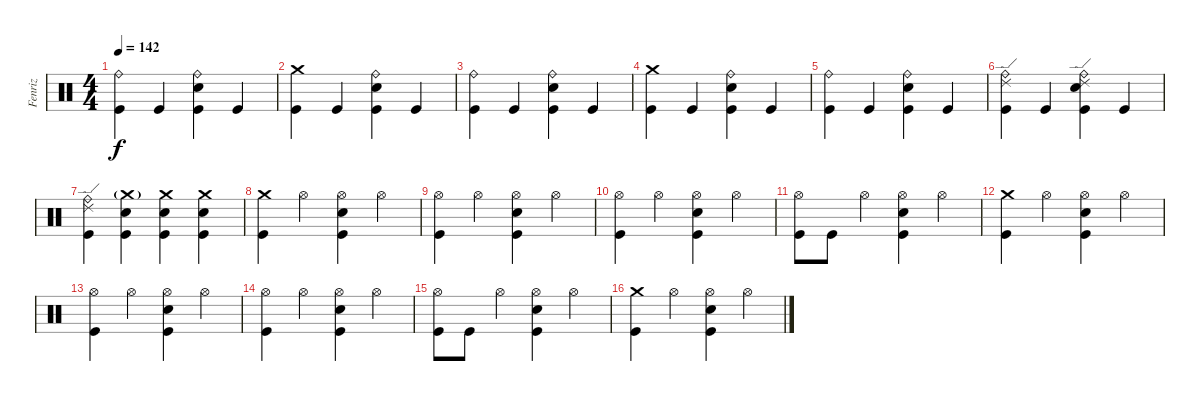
\track ("Fenriz" "Fenriz") {instrument percussion}
\staff {score}
\articulation defaults
\ts (4 4)
\tempo 142
\clef neutral
\ks c
("Ride (bell)" "Kick (hit)").4{dy f} "Kick (hit)".4 ("Electric Snare (hit)" "Ride (bell)" "Kick (hit)").4 "Kick (hit)".4 |
("Crash medium (hit)" "Kick (hit)").4 "Kick (hit)".4 ("Electric Snare (hit)" "Ride (bell)" "Kick (hit)").4 "Kick (hit)".4 |
("Ride (bell)" "Kick (hit)").4 "Kick (hit)".4 ("Electric Snare (hit)" "Ride (bell)" "Kick (hit)").4 "Kick (hit)".4 |
("Crash medium (hit)" "Kick (hit)").4 "Kick (hit)".4 ("Electric Snare (hit)" "Ride (bell)" "Kick (hit)").4 "Kick (hit)".4 |
("Ride (bell)" "Kick (hit)").4 "Kick (hit)".4 ("Electric Snare (hit)" "Ride (bell)" "Kick (hit)").4 "Kick (hit)".4 |
("Ride (edge) 2" "Ride (bell)" "Kick (hit)").4 "Kick (hit)".4 ("Ride (edge) 2" "Electric Snare (hit)" "Ride (bell)" "Kick (hit)").4 "Kick (hit)".4 |
("Ride (edge) 2" "Ride (bell)" "Kick (hit)").4 ("Crash medium (hit)"{g} "Electric Snare (hit)" "Kick (hit)").4 ("Crash medium (hit)" "Electric Snare (hit)" "Kick (hit)").4 ("Crash medium (hit)" "Electric Snare (hit)" "Kick (hit)").4 |
("Crash medium (hit)" "Kick (hit)").4 "Hi-Hat (open)".4 ("Electric Snare (hit)" "Hi-Hat (open)" "Kick (hit)").4 "Hi-Hat (open)".4 |
("Hi-Hat (open)" "Kick (hit)").4 "Hi-Hat (open)".4 ("Electric Snare (hit)" "Hi-Hat (open)" "Kick (hit)").4 "Hi-Hat (open)".4 |
("Hi-Hat (open)" "Kick (hit)").4 "Hi-Hat (open)".4 ("Electric Snare (hit)" "Hi-Hat (open)" "Kick (hit)").4 "Hi-Hat (open)".4 |
("Hi-Hat (open)" "Kick (hit)").8 "Kick (hit)".8 "Hi-Hat (open)".4 ("Electric Snare (hit)" "Hi-Hat (open)" "Kick (hit)").4 "Hi-Hat (open)".4 |
("Crash medium (hit)" "Kick (hit)").4 "Hi-Hat (open)".4 ("Electric Snare (hit)" "Hi-Hat (open)" "Kick (hit)").4 "Hi-Hat (open)".4 |
("Hi-Hat (open)" "Kick (hit)").4 "Hi-Hat (open)".4 ("Electric Snare (hit)" "Hi-Hat (open)" "Kick (hit)").4 "Hi-Hat (open)".4 |
("Hi-Hat (open)" "Kick (hit)").4 "Hi-Hat (open)".4 ("Electric Snare (hit)" "Hi-Hat (open)" "Kick (hit)").4 "Hi-Hat (open)".4 |
("Hi-Hat (open)" "Kick (hit)").8 "Kick (hit)".8 "Hi-Hat (open)".4 ("Electric Snare (hit)" "Hi-Hat (open)" "Kick (hit)").4 "Hi-Hat (open)".4 |
("Crash medium (hit)" "Kick (hit)").4 "Hi-Hat (open)".4 ("Electric Snare (hit)" "Hi-Hat (open)" "Kick (hit)").4 "Hi-Hat (open)".4
